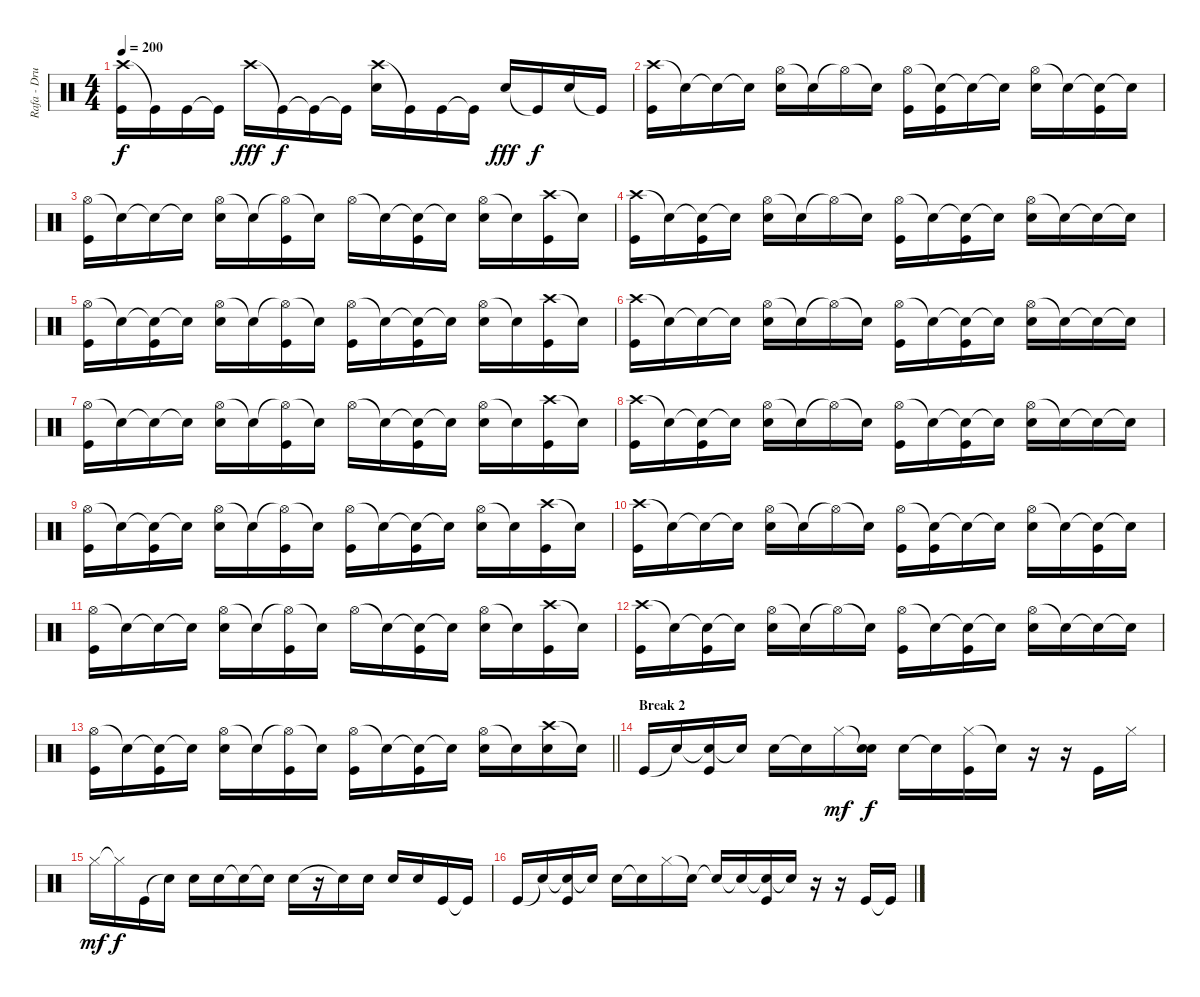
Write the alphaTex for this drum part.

\track ("Rafa - Drums" "Rafa - Dru") {instrument percussion}
\staff {score}
\articulation defaults
\ts (4 4)
\tempo 200
\clef neutral
\ks c
("Crash high (hit)" "Kick (hit)").16{dy f} "Kick (hit)"{t}.16 "Kick (hit)".16 "Kick (hit)"{t}.16 "Crash high (hit)".16{dy fff} "Kick (hit)"{t}.16{dy f} "Kick (hit)"{t}.16 "Kick (hit)"{t}.16 ("Crash high (hit)" "Electric Snare (hit)").16 "Kick (hit)"{t}.16 "Kick (hit)".16 "Kick (hit)"{t}.16 "Electric Snare (hit)".16{dy fff} "Kick (hit)"{t}.16{dy f} "Electric Snare (hit)".16 "Kick (hit)"{t}.16 |
("Crash high (hit)" "Kick (hit)").16 "Snare (hit)"{t}.16 "Snare (hit)"{t}.16 "Snare (hit)"{t}.16 ("Hi-Hat (open)" "Electric Snare (hit)").16 "Snare (hit)"{t}.16 "Hi-Hat (open)"{t}.16 "Snare (hit)"{t}.16 ("Hi-Hat (open)" "Kick (hit)").16 ("Snare (hit)"{t} "Kick (hit)").16 "Snare (hit)"{t}.16 "Snare (hit)"{t}.16 ("Hi-Hat (open)" "Electric Snare (hit)").16 "Snare (hit)"{t}.16 ("Snare (hit)"{t} "Kick (hit)").16 "Snare (hit)"{t}.16 |
("Hi-Hat (open)" "Kick (hit)").16 "Snare (hit)"{t}.16 "Snare (hit)"{t}.16 "Snare (hit)"{t}.16 ("Hi-Hat (open)" "Electric Snare (hit)").16 "Snare (hit)"{t}.16 ("Hi-Hat (open)"{t} "Kick (hit)").16 "Snare (hit)"{t}.16 "Hi-Hat (open)".16 "Snare (hit)"{t}.16 ("Snare (hit)"{t} "Kick (hit)").16 "Snare (hit)"{t}.16 ("Hi-Hat (open)" "Electric Snare (hit)").16 "Snare (hit)"{t}.16 ("Crash high (hit)" "Kick (hit)").16 "Snare (hit)"{t}.16 |
("Crash high (hit)" "Kick (hit)").16 "Snare (hit)"{t}.16 ("Snare (hit)"{t} "Kick (hit)").16 "Snare (hit)"{t}.16 ("Hi-Hat (open)" "Electric Snare (hit)").16 "Snare (hit)"{t}.16 "Hi-Hat (open)"{t}.16 "Snare (hit)"{t}.16 ("Hi-Hat (open)" "Kick (hit)").16 "Snare (hit)"{t}.16 ("Snare (hit)"{t} "Kick (hit)").16 "Snare (hit)"{t}.16 ("Hi-Hat (open)" "Electric Snare (hit)").16 "Snare (hit)"{t}.16 "Snare (hit)"{t}.16 "Snare (hit)"{t}.16 |
("Hi-Hat (open)" "Kick (hit)").16 "Snare (hit)"{t}.16 ("Snare (hit)"{t} "Kick (hit)").16 "Snare (hit)"{t}.16 ("Hi-Hat (open)" "Electric Snare (hit)").16 "Snare (hit)"{t}.16 ("Hi-Hat (open)"{t} "Kick (hit)").16 "Snare (hit)"{t}.16 ("Hi-Hat (open)" "Kick (hit)").16 "Snare (hit)"{t}.16 ("Snare (hit)"{t} "Kick (hit)").16 "Snare (hit)"{t}.16 ("Hi-Hat (open)" "Electric Snare (hit)").16 "Snare (hit)"{t}.16 ("Crash high (hit)" "Kick (hit)").16 "Snare (hit)"{t}.16 |
("Crash high (hit)" "Kick (hit)").16 "Snare (hit)"{t}.16 "Snare (hit)"{t}.16 "Snare (hit)"{t}.16 ("Hi-Hat (open)" "Electric Snare (hit)").16 "Snare (hit)"{t}.16 "Hi-Hat (open)"{t}.16 "Snare (hit)"{t}.16 ("Hi-Hat (open)" "Kick (hit)").16 "Snare (hit)"{t}.16 ("Snare (hit)"{t} "Kick (hit)").16 "Snare (hit)"{t}.16 ("Hi-Hat (open)" "Electric Snare (hit)").16 "Snare (hit)"{t}.16 "Snare (hit)"{t}.16 "Snare (hit)"{t}.16 |
("Hi-Hat (open)" "Kick (hit)").16 "Snare (hit)"{t}.16 "Snare (hit)"{t}.16 "Snare (hit)"{t}.16 ("Hi-Hat (open)" "Electric Snare (hit)").16 "Snare (hit)"{t}.16 ("Hi-Hat (open)"{t} "Kick (hit)").16 "Snare (hit)"{t}.16 "Hi-Hat (open)".16 "Snare (hit)"{t}.16 ("Snare (hit)"{t} "Kick (hit)").16 "Snare (hit)"{t}.16 ("Hi-Hat (open)" "Electric Snare (hit)").16 "Snare (hit)"{t}.16 ("Crash high (hit)" "Kick (hit)").16 "Snare (hit)"{t}.16 |
("Crash high (hit)" "Kick (hit)").16 "Snare (hit)"{t}.16 ("Snare (hit)"{t} "Kick (hit)").16 "Snare (hit)"{t}.16 ("Hi-Hat (open)" "Electric Snare (hit)").16 "Snare (hit)"{t}.16 "Hi-Hat (open)"{t}.16 "Snare (hit)"{t}.16 ("Hi-Hat (open)" "Kick (hit)").16 "Snare (hit)"{t}.16 ("Snare (hit)"{t} "Kick (hit)").16 "Snare (hit)"{t}.16 ("Hi-Hat (open)" "Electric Snare (hit)").16 "Snare (hit)"{t}.16 "Snare (hit)"{t}.16 "Snare (hit)"{t}.16 |
("Hi-Hat (open)" "Kick (hit)").16 "Snare (hit)"{t}.16 ("Snare (hit)"{t} "Kick (hit)").16 "Snare (hit)"{t}.16 ("Hi-Hat (open)" "Electric Snare (hit)").16 "Snare (hit)"{t}.16 ("Hi-Hat (open)"{t} "Kick (hit)").16 "Snare (hit)"{t}.16 ("Hi-Hat (open)" "Kick (hit)").16 "Snare (hit)"{t}.16 ("Snare (hit)"{t} "Kick (hit)").16 "Snare (hit)"{t}.16 ("Hi-Hat (open)" "Electric Snare (hit)").16 "Snare (hit)"{t}.16 ("Crash high (hit)" "Kick (hit)").16 "Snare (hit)"{t}.16 |
("Crash high (hit)" "Kick (hit)").16 "Snare (hit)"{t}.16 "Snare (hit)"{t}.16 "Snare (hit)"{t}.16 ("Hi-Hat (open)" "Electric Snare (hit)").16 "Snare (hit)"{t}.16 "Hi-Hat (open)"{t}.16 "Snare (hit)"{t}.16 ("Hi-Hat (open)" "Kick (hit)").16 ("Snare (hit)"{t} "Kick (hit)").16 "Snare (hit)"{t}.16 "Snare (hit)"{t}.16 ("Hi-Hat (open)" "Electric Snare (hit)").16 "Snare (hit)"{t}.16 ("Snare (hit)"{t} "Kick (hit)").16 "Snare (hit)"{t}.16 |
("Hi-Hat (open)" "Kick (hit)").16 "Snare (hit)"{t}.16 "Snare (hit)"{t}.16 "Snare (hit)"{t}.16 ("Hi-Hat (open)" "Electric Snare (hit)").16 "Snare (hit)"{t}.16 ("Hi-Hat (open)"{t} "Kick (hit)").16 "Snare (hit)"{t}.16 "Hi-Hat (open)".16 "Snare (hit)"{t}.16 ("Snare (hit)"{t} "Kick (hit)").16 "Snare (hit)"{t}.16 ("Hi-Hat (open)" "Electric Snare (hit)").16 "Snare (hit)"{t}.16 ("Crash high (hit)" "Kick (hit)").16 "Snare (hit)"{t}.16 |
("Crash high (hit)" "Kick (hit)").16 "Snare (hit)"{t}.16 ("Snare (hit)"{t} "Kick (hit)").16 "Snare (hit)"{t}.16 ("Hi-Hat (open)" "Electric Snare (hit)").16 "Snare (hit)"{t}.16 "Hi-Hat (open)"{t}.16 "Snare (hit)"{t}.16 ("Hi-Hat (open)" "Kick (hit)").16 "Snare (hit)"{t}.16 ("Snare (hit)"{t} "Kick (hit)").16 "Snare (hit)"{t}.16 ("Hi-Hat (open)" "Electric Snare (hit)").16 "Snare (hit)"{t}.16 "Snare (hit)"{t}.16 "Snare (hit)"{t}.16 |
\barLineRight lightlight
("Hi-Hat (open)" "Kick (hit)").16 "Snare (hit)"{t}.16 ("Snare (hit)"{t} "Kick (hit)").16 "Snare (hit)"{t}.16 ("Hi-Hat (open)" "Electric Snare (hit)").16 "Snare (hit)"{t}.16 ("Hi-Hat (open)"{t} "Kick (hit)").16 "Snare (hit)"{t}.16 ("Hi-Hat (open)" "Kick (hit)").16 "Snare (hit)"{t}.16 ("Snare (hit)"{t} "Kick (hit)").16 "Snare (hit)"{t}.16 ("Hi-Hat (open)" "Electric Snare (hit)").16 "Snare (hit)"{t}.16 ("Crash high (hit)" "Electric Snare (hit)").16 "Snare (hit)"{t}.16 |
\section ("" "Break 2")
"Kick (hit)".16 "Snare (hit)"{t}.16 ("Snare (hit)"{t} "Kick (hit)").16 "Snare (hit)"{t}.16 "Electric Snare (hit)".16 "Snare (hit)"{t}.16 "Hi-Hat (closed)".16{dy mf} ("Snare (hit)"{t} "Electric Snare (hit)").16{dy f} "Electric Snare (hit)".16 "Snare (hit)"{t}.16 ("Hi-Hat (closed)" "Kick (hit)").16 "Snare (hit)"{t}.16 r.16 r.16 "Kick (hit)".16 "Hi-Hat (closed)".16 |
"Hi-Hat (closed)".16{dy mf} "Hi-Hat (closed)"{t}.16{dy f} "Kick (hit)".16 "Snare (hit)"{t}.16 "Electric Snare (hit)".16 "Electric Snare (hit)".16 "Electric Snare (hit)"{t}.16 "Snare (hit)"{t}.16 "Electric Snare (hit)".16 r.16 "Electric Snare (hit)"{t}.16 "Electric Snare (hit)".16 "Electric Snare (hit)".16 "Electric Snare (hit)".16 "Kick (hit)".16 "Kick (hit)"{t}.16 |
"Kick (hit)".16 "Snare (hit)"{t}.16 ("Snare (hit)"{t} "Kick (hit)").16 "Snare (hit)"{t}.16 "Electric Snare (hit)".16 "Snare (hit)"{t}.16 "Hi-Hat (closed)".16 "Snare (hit)"{t}.16 "Snare (hit)"{t}.16 "Snare (hit)"{t}.16 ("Snare (hit)"{t} "Kick (hit)").16 "Snare (hit)"{t}.16 r.16 r.16 "Kick (hit)".16 "Kick (hit)"{t}.16
